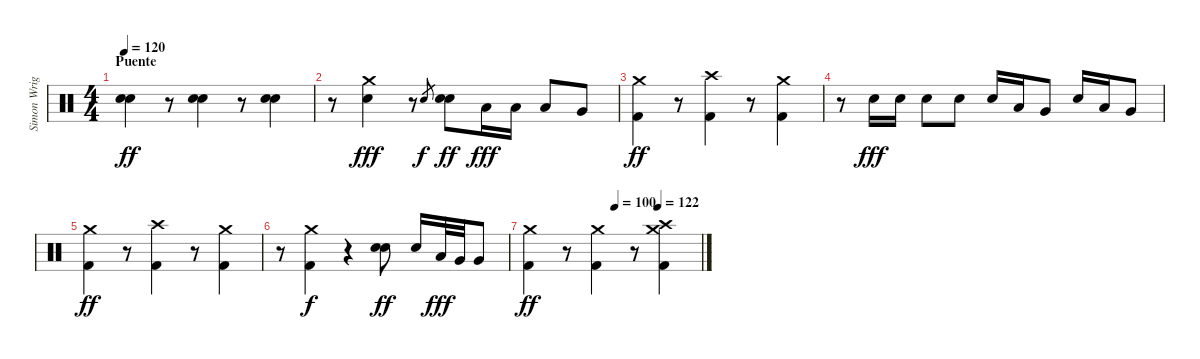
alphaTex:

\track ("Simon Wright" "Simon Wrig") {instrument percussion}
\staff {score}
\articulation defaults
\ts (4 4)
\section ("" "Puente")
\tempo 120
\clef neutral
\ks c
("Snare (hit) 2" "Snare (hit) 2").4{dy ff} r.8 ("Snare (hit) 2" "Snare (hit) 2").4 r.8 ("Snare (hit) 2" "Snare (hit) 2").4 |
r.8 ("Crash medium (hit)" "Snare (hit) 2").4{dy fff} r.8 "Snare (hit) 2".8{gr dy f} ("Snare (hit) 2" "Snare (hit) 2").8{dy ff} "Low Tom (hit)".16{dy fff} "Low Tom (hit)".16 "Low Tom (hit)".8 "Very Low Tom (hit)".8 |
("Crash medium (hit)" "Kick (hit) 2").4{dy ff} r.8 ("Crash high (hit)" "Kick (hit) 2").4 r.8 ("Crash medium (hit)" "Kick (hit) 2").4 |
r.8 "Snare (hit) 2".16{dy fff} "Snare (hit) 2".16 "Snare (hit) 2".8 "Snare (hit) 2".8 "Snare (hit) 2".16 "Low Tom (hit)".16 "Very Low Tom (hit)".8 "Snare (hit) 2".16 "Low Tom (hit)".16 "Very Low Tom (hit)".8 |
("Crash medium (hit)" "Kick (hit) 2").4{dy ff} r.8 ("Crash high (hit)" "Kick (hit) 2").4 r.8 ("Crash medium (hit)" "Kick (hit) 2").4 |
r.8 ("Crash medium (hit)" "Kick (hit) 2").4{dy f} r.4 ("Snare (hit) 2" "Snare (hit) 2").8{dy ff} "Snare (hit) 2".16 "Low Tom (hit)".32{dy fff} "Very Low Tom (hit)".32 "Very Low Tom (hit)".8 |
\tempo (100 0.5)
\tempo (122 0.75)
("Crash medium (hit)" "Kick (hit) 2").4{dy ff} r.8 ("Crash medium (hit)" "Kick (hit) 2").4 r.8 ("Crash high (hit)" "Crash medium (hit)" "Kick (hit) 2").4
